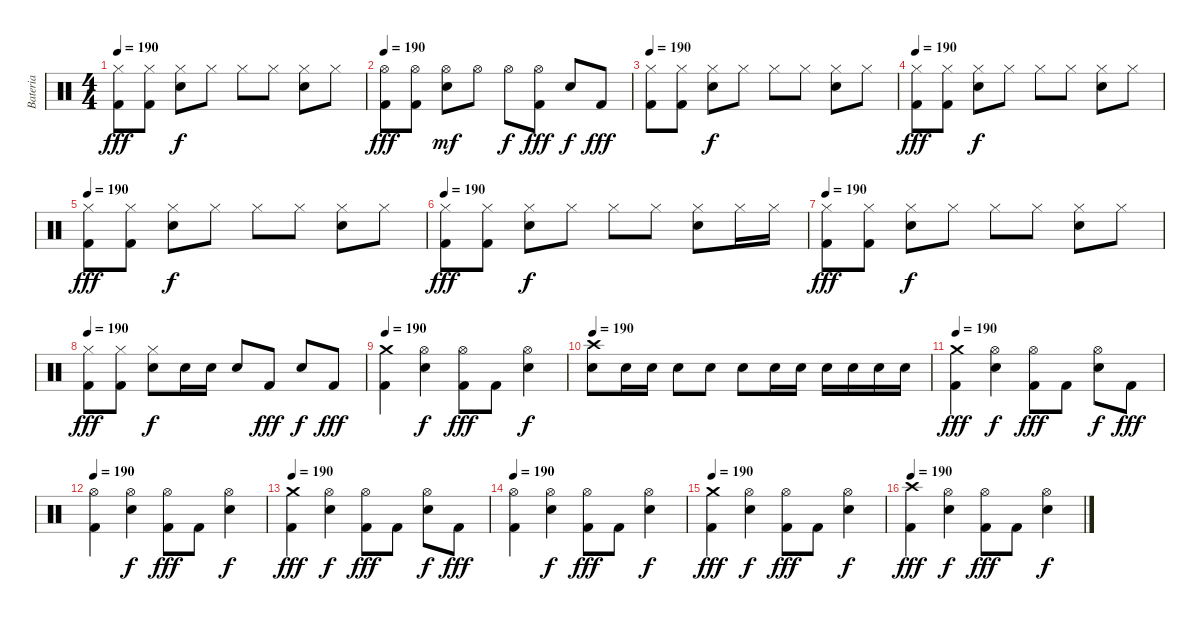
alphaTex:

\track ("Bateria" "Bateria") {instrument percussion}
\staff {score}
\articulation defaults
\ts (4 4)
\tempo 190
\clef neutral
\ks c
("Hi-Hat (closed)" "Kick (hit) 2").8{dy fff} ("Hi-Hat (closed)" "Kick (hit) 2").8 ("Hi-Hat (closed)" "Electric Snare (hit)").8{dy f} "Hi-Hat (closed)".8 "Hi-Hat (closed)".8 "Hi-Hat (closed)".8 ("Hi-Hat (closed)" "Electric Snare (hit)").8 "Hi-Hat (closed)".8 |
\tempo 190
("Hi-Hat (open)" "Kick (hit) 2").8{dy fff} ("Hi-Hat (open)" "Kick (hit) 2").8 ("Hi-Hat (open)" "Electric Snare (hit)").8{dy mf} "Hi-Hat (open)".8 "Hi-Hat (open)".8{dy f} ("Hi-Hat (open)" "Kick (hit) 2").8{dy fff} "Electric Snare (hit)".8{dy f} "Kick (hit) 2".8{dy fff} |
\tempo 190
("Hi-Hat (closed)" "Kick (hit) 2").8 ("Hi-Hat (closed)" "Kick (hit) 2").8 ("Hi-Hat (closed)" "Electric Snare (hit)").8{dy f} "Hi-Hat (closed)".8 "Hi-Hat (closed)".8 "Hi-Hat (closed)".8 ("Hi-Hat (closed)" "Electric Snare (hit)").8 "Hi-Hat (closed)".8 |
\tempo 190
("Hi-Hat (closed)" "Kick (hit) 2").8{dy fff} ("Hi-Hat (closed)" "Kick (hit) 2").8 ("Hi-Hat (closed)" "Electric Snare (hit)").8{dy f} "Hi-Hat (closed)".8 "Hi-Hat (closed)".8 "Hi-Hat (closed)".8 ("Hi-Hat (closed)" "Electric Snare (hit)").8 "Hi-Hat (closed)".8 |
\tempo 190
("Hi-Hat (closed)" "Kick (hit) 2").8{dy fff} ("Hi-Hat (closed)" "Kick (hit) 2").8 ("Hi-Hat (closed)" "Electric Snare (hit)").8{dy f} "Hi-Hat (closed)".8 "Hi-Hat (closed)".8 "Hi-Hat (closed)".8 ("Hi-Hat (closed)" "Electric Snare (hit)").8 "Hi-Hat (closed)".8 |
\tempo 190
("Hi-Hat (closed)" "Kick (hit) 2").8{dy fff} ("Hi-Hat (closed)" "Kick (hit) 2").8 ("Hi-Hat (closed)" "Electric Snare (hit)").8{dy f} "Hi-Hat (closed)".8 "Hi-Hat (closed)".8 "Hi-Hat (closed)".8 ("Hi-Hat (closed)" "Electric Snare (hit)").8 "Hi-Hat (closed)".16 "Hi-Hat (closed)".16 |
\tempo 190
("Hi-Hat (closed)" "Kick (hit) 2").8{dy fff} ("Hi-Hat (closed)" "Kick (hit) 2").8 ("Hi-Hat (closed)" "Electric Snare (hit)").8{dy f} "Hi-Hat (closed)".8 "Hi-Hat (closed)".8 "Hi-Hat (closed)".8 ("Hi-Hat (closed)" "Electric Snare (hit)").8 "Hi-Hat (closed)".8 |
\tempo 190
("Hi-Hat (closed)" "Kick (hit) 2").8{dy fff} ("Hi-Hat (closed)" "Kick (hit) 2").8 ("Hi-Hat (closed)" "Electric Snare (hit)").8{dy f} "Electric Snare (hit)".16 "Electric Snare (hit)".16 "Electric Snare (hit)".8 "Kick (hit) 2".8{dy fff} "Electric Snare (hit)".8{dy f} "Kick (hit) 2".8{dy fff} |
\tempo 190
("Crash medium (hit)" "Kick (hit) 2").4 ("Hi-Hat (open)" "Electric Snare (hit)").4{dy f} ("Hi-Hat (open)" "Kick (hit) 2").8{dy fff} "Kick (hit) 2".8 ("Hi-Hat (open)" "Electric Snare (hit)").4{dy f} |
\tempo 190
("Crash high (hit)" "Electric Snare (hit)").8 "Electric Snare (hit)".16 "Electric Snare (hit)".16 "Electric Snare (hit)".8 "Electric Snare (hit)".8 "Electric Snare (hit)".8 "Electric Snare (hit)".16 "Electric Snare (hit)".16 "Electric Snare (hit)".16 "Electric Snare (hit)".16 "Electric Snare (hit)".16 "Electric Snare (hit)".16 |
\tempo 190
("Crash medium (hit)" "Kick (hit) 2").4{dy fff} ("Hi-Hat (open)" "Electric Snare (hit)").4{dy f} ("Hi-Hat (open)" "Kick (hit) 2").8{dy fff} "Kick (hit) 2".8 ("Hi-Hat (open)" "Electric Snare (hit)").8{dy f} "Kick (hit) 2".8{dy fff} |
\tempo 190
("Hi-Hat (open)" "Kick (hit) 2").4 ("Hi-Hat (open)" "Electric Snare (hit)").4{dy f} ("Hi-Hat (open)" "Kick (hit) 2").8{dy fff} "Kick (hit) 2".8 ("Hi-Hat (open)" "Electric Snare (hit)").4{dy f} |
\tempo 190
("Crash medium (hit)" "Kick (hit) 2").4{dy fff} ("Hi-Hat (open)" "Electric Snare (hit)").4{dy f} ("Hi-Hat (open)" "Kick (hit) 2").8{dy fff} "Kick (hit) 2".8 ("Hi-Hat (open)" "Electric Snare (hit)").8{dy f} "Kick (hit) 2".8{dy fff} |
\tempo 190
("Hi-Hat (open)" "Kick (hit) 2").4 ("Hi-Hat (open)" "Electric Snare (hit)").4{dy f} ("Hi-Hat (open)" "Kick (hit) 2").8{dy fff} "Kick (hit) 2".8 ("Hi-Hat (open)" "Electric Snare (hit)").4{dy f} |
\tempo 190
("Crash medium (hit)" "Kick (hit) 2").4{dy fff} ("Hi-Hat (open)" "Electric Snare (hit)").4{dy f} ("Hi-Hat (open)" "Kick (hit) 2").8{dy fff} "Kick (hit) 2".8 ("Hi-Hat (open)" "Electric Snare (hit)").4{dy f} |
\tempo 190
("Crash high (hit)" "Kick (hit) 2").4{dy fff} ("Hi-Hat (open)" "Electric Snare (hit)").4{dy f} ("Hi-Hat (open)" "Kick (hit) 2").8{dy fff} "Kick (hit) 2".8 ("Hi-Hat (open)" "Electric Snare (hit)").4{dy f}
